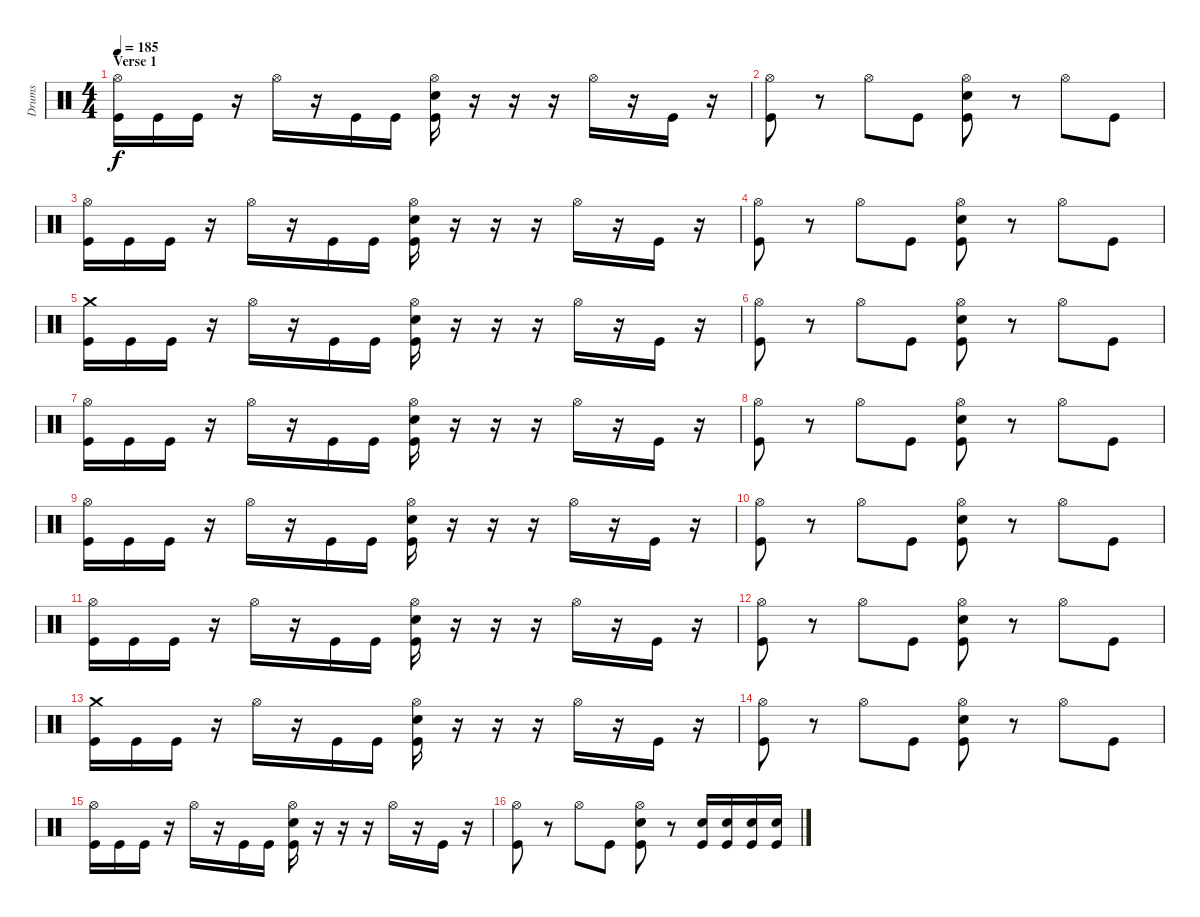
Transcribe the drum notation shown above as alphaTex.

\track ("Drums" "Drums") {instrument percussion}
\staff {score}
\articulation defaults
\ts (4 4)
\section ("" "Verse 1")
\tempo 185
\clef neutral
\ks c
("Hi-Hat (open)" "Kick (hit)").16{dy f} "Kick (hit)".16 "Kick (hit)".16 r.16 "Hi-Hat (open)".16 r.16 "Kick (hit)".16 "Kick (hit)".16 ("Hi-Hat (open)" "Snare (hit) 2" "Kick (hit)").16 r.16 r.16 r.16 "Hi-Hat (open)".16 r.16 "Kick (hit)".16 r.16 |
("Hi-Hat (open)" "Kick (hit)").8 r.8 "Hi-Hat (open)".8 "Kick (hit)".8 ("Hi-Hat (open)" "Snare (hit) 2" "Kick (hit)").8 r.8 "Hi-Hat (open)".8 "Kick (hit)".8 |
("Hi-Hat (open)" "Kick (hit)").16 "Kick (hit)".16 "Kick (hit)".16 r.16 "Hi-Hat (open)".16 r.16 "Kick (hit)".16 "Kick (hit)".16 ("Hi-Hat (open)" "Snare (hit) 2" "Kick (hit)").16 r.16 r.16 r.16 "Hi-Hat (open)".16 r.16 "Kick (hit)".16 r.16 |
("Hi-Hat (open)" "Kick (hit)").8 r.8 "Hi-Hat (open)".8 "Kick (hit)".8 ("Hi-Hat (open)" "Snare (hit) 2" "Kick (hit)").8 r.8 "Hi-Hat (open)".8 "Kick (hit)".8 |
("Crash medium (hit)" "Kick (hit)").16 "Kick (hit)".16 "Kick (hit)".16 r.16 "Hi-Hat (open)".16 r.16 "Kick (hit)".16 "Kick (hit)".16 ("Hi-Hat (open)" "Snare (hit) 2" "Kick (hit)").16 r.16 r.16 r.16 "Hi-Hat (open)".16 r.16 "Kick (hit)".16 r.16 |
("Hi-Hat (open)" "Kick (hit)").8 r.8 "Hi-Hat (open)".8 "Kick (hit)".8 ("Hi-Hat (open)" "Snare (hit) 2" "Kick (hit)").8 r.8 "Hi-Hat (open)".8 "Kick (hit)".8 |
("Hi-Hat (open)" "Kick (hit)").16 "Kick (hit)".16 "Kick (hit)".16 r.16 "Hi-Hat (open)".16 r.16 "Kick (hit)".16 "Kick (hit)".16 ("Hi-Hat (open)" "Snare (hit) 2" "Kick (hit)").16 r.16 r.16 r.16 "Hi-Hat (open)".16 r.16 "Kick (hit)".16 r.16 |
("Hi-Hat (open)" "Kick (hit)").8 r.8 "Hi-Hat (open)".8 "Kick (hit)".8 ("Hi-Hat (open)" "Snare (hit) 2" "Kick (hit)").8 r.8 "Hi-Hat (open)".8 "Kick (hit)".8 |
("Hi-Hat (open)" "Kick (hit)").16 "Kick (hit)".16 "Kick (hit)".16 r.16 "Hi-Hat (open)".16 r.16 "Kick (hit)".16 "Kick (hit)".16 ("Hi-Hat (open)" "Snare (hit) 2" "Kick (hit)").16 r.16 r.16 r.16 "Hi-Hat (open)".16 r.16 "Kick (hit)".16 r.16 |
("Hi-Hat (open)" "Kick (hit)").8 r.8 "Hi-Hat (open)".8 "Kick (hit)".8 ("Hi-Hat (open)" "Snare (hit) 2" "Kick (hit)").8 r.8 "Hi-Hat (open)".8 "Kick (hit)".8 |
("Hi-Hat (open)" "Kick (hit)").16 "Kick (hit)".16 "Kick (hit)".16 r.16 "Hi-Hat (open)".16 r.16 "Kick (hit)".16 "Kick (hit)".16 ("Hi-Hat (open)" "Snare (hit) 2" "Kick (hit)").16 r.16 r.16 r.16 "Hi-Hat (open)".16 r.16 "Kick (hit)".16 r.16 |
("Hi-Hat (open)" "Kick (hit)").8 r.8 "Hi-Hat (open)".8 "Kick (hit)".8 ("Hi-Hat (open)" "Snare (hit) 2" "Kick (hit)").8 r.8 "Hi-Hat (open)".8 "Kick (hit)".8 |
("Crash medium (hit)" "Kick (hit)").16 "Kick (hit)".16 "Kick (hit)".16 r.16 "Hi-Hat (open)".16 r.16 "Kick (hit)".16 "Kick (hit)".16 ("Hi-Hat (open)" "Snare (hit) 2" "Kick (hit)").16 r.16 r.16 r.16 "Hi-Hat (open)".16 r.16 "Kick (hit)".16 r.16 |
("Hi-Hat (open)" "Kick (hit)").8 r.8 "Hi-Hat (open)".8 "Kick (hit)".8 ("Hi-Hat (open)" "Snare (hit) 2" "Kick (hit)").8 r.8 "Hi-Hat (open)".8 "Kick (hit)".8 |
("Hi-Hat (open)" "Kick (hit)").16 "Kick (hit)".16 "Kick (hit)".16 r.16 "Hi-Hat (open)".16 r.16 "Kick (hit)".16 "Kick (hit)".16 ("Hi-Hat (open)" "Snare (hit) 2" "Kick (hit)").16 r.16 r.16 r.16 "Hi-Hat (open)".16 r.16 "Kick (hit)".16 r.16 |
("Hi-Hat (open)" "Kick (hit)").8 r.8 "Hi-Hat (open)".8 "Kick (hit)".8 ("Hi-Hat (open)" "Snare (hit) 2" "Kick (hit)").8 r.8 ("Snare (hit) 2" "Kick (hit)").16 ("Snare (hit) 2" "Kick (hit)").16 ("Snare (hit) 2" "Kick (hit)").16 ("Snare (hit) 2" "Kick (hit)").16
